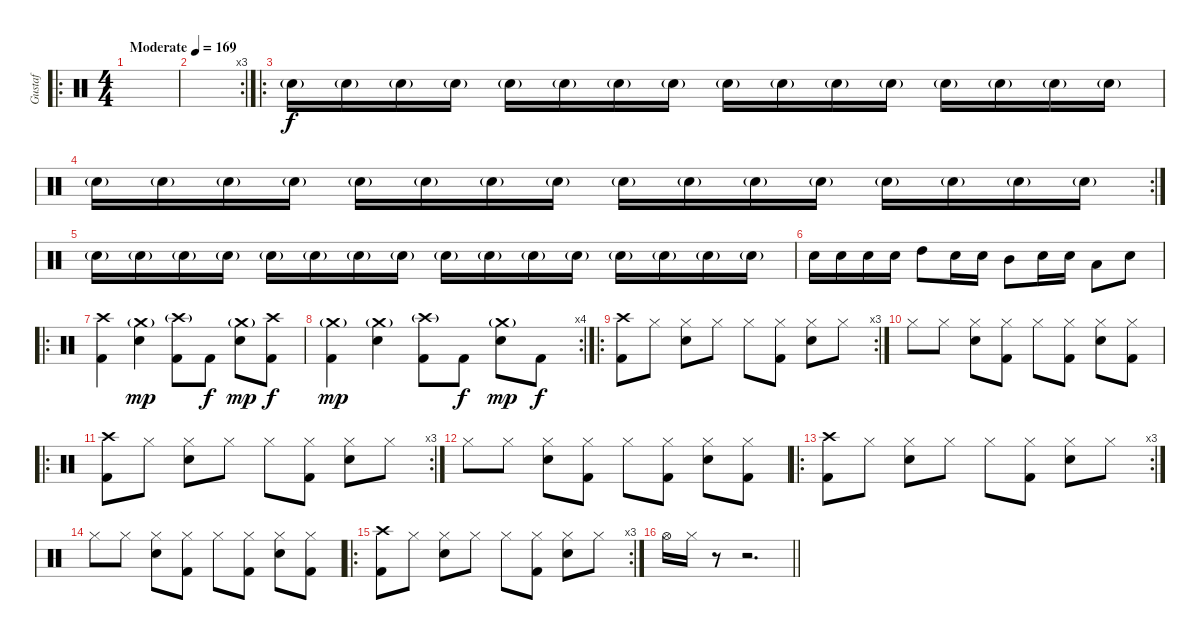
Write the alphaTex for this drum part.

\track ("Gustaf" "Gustaf") {instrument percussion}
\staff {score}
\articulation defaults
\ro
\ts (4 4)
\tempo (169 "Moderate")
\clef neutral
\ks c
|
\rc 3
|
\ro "Snare (hit) 2"{g}.16 "Snare (hit) 2"{g}.16 "Snare (hit) 2"{g}.16 "Snare (hit) 2"{g}.16 "Snare (hit) 2"{g}.16 "Snare (hit) 2"{g}.16 "Snare (hit) 2"{g}.16 "Snare (hit) 2"{g}.16 "Snare (hit) 2"{g}.16 "Snare (hit) 2"{g}.16 "Snare (hit) 2"{g}.16 "Snare (hit) 2"{g}.16 "Snare (hit) 2"{g}.16 "Snare (hit) 2"{g}.16 "Snare (hit) 2"{g}.16 "Snare (hit) 2"{g}.16
|
\rc 2 "Snare (hit) 2"{g}.16 "Snare (hit) 2"{g}.16 "Snare (hit) 2"{g}.16 "Snare (hit) 2"{g}.16 "Snare (hit) 2"{g}.16 "Snare (hit) 2"{g}.16 "Snare (hit) 2"{g}.16 "Snare (hit) 2"{g}.16 "Snare (hit) 2"{g}.16 "Snare (hit) 2"{g}.16 "Snare (hit) 2"{g}.16 "Snare (hit) 2"{g}.16 "Snare (hit) 2"{g}.16 "Snare (hit) 2"{g}.16 "Snare (hit) 2"{g}.16 "Snare (hit) 2"{g}.16
|
"Snare (hit) 2"{g}.16 "Snare (hit) 2"{g}.16 "Snare (hit) 2"{g}.16 "Snare (hit) 2"{g}.16 "Snare (hit) 2"{g}.16 "Snare (hit) 2"{g}.16 "Snare (hit) 2"{g}.16 "Snare (hit) 2"{g}.16 "Snare (hit) 2"{g}.16 "Snare (hit) 2"{g}.16 "Snare (hit) 2"{g}.16 "Snare (hit) 2"{g}.16 "Snare (hit) 2"{g}.16 "Snare (hit) 2"{g}.16 "Snare (hit) 2"{g}.16 "Snare (hit) 2"{g}.16 |
"Snare (hit) 2".16{dy f} "Snare (hit) 2".16 "Snare (hit) 2".16 "Snare (hit) 2".16 "High Tom (hit)".8 "Snare (hit) 2".16 "Snare (hit) 2".16 "Mid Tom (hit)".8 "Snare (hit) 2".16 "Snare (hit) 2".16 "Low Tom (hit)".8 "Snare (hit) 2".8 |
\ro
("Crash high (hit)" "Kick (hit) 2").4 ("Crash medium (hit)"{g} "Snare (hit) 2").4{dy mp} ("Crash high (hit)"{g} "Kick (hit) 2").8 "Kick (hit) 2".8{dy f} ("Crash medium (hit)"{g} "Snare (hit) 2").8{dy mp} ("Crash high (hit)" "Kick (hit) 2").8{dy f} |
\rc 4
("Crash medium (hit)"{g} "Kick (hit) 2").4{dy mp} ("Crash medium (hit)"{g} "Snare (hit) 2").4 ("Crash high (hit)"{g} "Kick (hit) 2").8 "Kick (hit) 2".8{dy f} ("Crash medium (hit)"{g} "Snare (hit) 2").8{dy mp} "Kick (hit) 2".8{dy f} |
\ro
\rc 3
("Crash high (hit)" "Kick (hit) 2").8 "Hi-Hat (closed)".8 ("Hi-Hat (closed)" "Snare (hit) 2").8 "Hi-Hat (closed)".8 "Hi-Hat (closed)".8 ("Hi-Hat (closed)" "Kick (hit) 2").8 ("Hi-Hat (closed)" "Snare (hit) 2").8 "Hi-Hat (closed)".8 |
"Hi-Hat (closed)".8 "Hi-Hat (closed)".8 ("Hi-Hat (closed)" "Snare (hit) 2").8 ("Hi-Hat (closed)" "Kick (hit) 2").8 "Hi-Hat (closed)".8 ("Hi-Hat (closed)" "Kick (hit) 2").8 ("Hi-Hat (closed)" "Snare (hit) 2").8 ("Hi-Hat (closed)" "Kick (hit) 2").8 |
\ro
\rc 3
("Crash high (hit)" "Kick (hit) 2").8 "Hi-Hat (closed)".8 ("Hi-Hat (closed)" "Snare (hit) 2").8 "Hi-Hat (closed)".8 "Hi-Hat (closed)".8 ("Hi-Hat (closed)" "Kick (hit) 2").8 ("Hi-Hat (closed)" "Snare (hit) 2").8 "Hi-Hat (closed)".8 |
"Hi-Hat (closed)".8 "Hi-Hat (closed)".8 ("Hi-Hat (closed)" "Snare (hit) 2").8 ("Hi-Hat (closed)" "Kick (hit) 2").8 "Hi-Hat (closed)".8 ("Hi-Hat (closed)" "Kick (hit) 2").8 ("Hi-Hat (closed)" "Snare (hit) 2").8 ("Hi-Hat (closed)" "Kick (hit) 2").8 |
\ro
\rc 3
("Crash high (hit)" "Kick (hit) 2").8 "Hi-Hat (closed)".8 ("Hi-Hat (closed)" "Snare (hit) 2").8 "Hi-Hat (closed)".8 "Hi-Hat (closed)".8 ("Hi-Hat (closed)" "Kick (hit) 2").8 ("Hi-Hat (closed)" "Snare (hit) 2").8 "Hi-Hat (closed)".8 |
"Hi-Hat (closed)".8 "Hi-Hat (closed)".8 ("Hi-Hat (closed)" "Snare (hit) 2").8 ("Hi-Hat (closed)" "Kick (hit) 2").8 "Hi-Hat (closed)".8 ("Hi-Hat (closed)" "Kick (hit) 2").8 ("Hi-Hat (closed)" "Snare (hit) 2").8 ("Hi-Hat (closed)" "Kick (hit) 2").8 |
\ro
\rc 3
("Crash high (hit)" "Kick (hit) 2").8 "Hi-Hat (closed)".8 ("Hi-Hat (closed)" "Snare (hit) 2").8 "Hi-Hat (closed)".8 "Hi-Hat (closed)".8 ("Hi-Hat (closed)" "Kick (hit) 2").8 ("Hi-Hat (closed)" "Snare (hit) 2").8 "Hi-Hat (closed)".8 |
\barLineRight lightlight "Hi-Hat (open)".16 "Hi-Hat (closed)".16
r.8 r.2{d}
